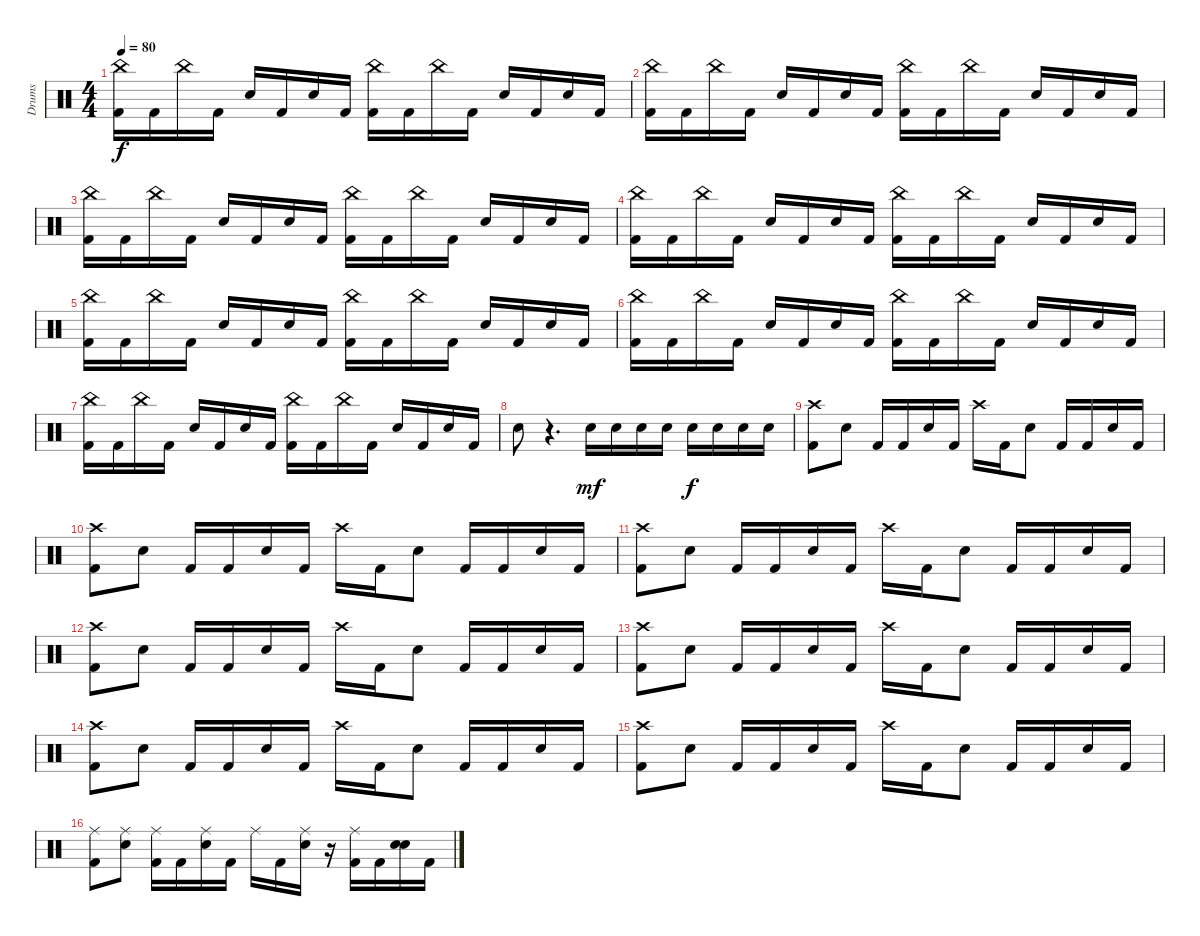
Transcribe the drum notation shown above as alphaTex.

\track ("Drums" "Drums") {instrument percussion}
\staff {score}
\articulation defaults
\ts (4 4)
\tempo 80
\clef neutral
\ks c
("China (hit)" "Kick (hit) 2").16{dy f} "Kick (hit) 2".16 "China (hit)".16 "Kick (hit) 2".16 "Electric Snare (hit)".16 "Kick (hit) 2".16 "Electric Snare (hit)".16 "Kick (hit) 2".16 ("China (hit)" "Kick (hit) 2").16 "Kick (hit) 2".16 "China (hit)".16 "Kick (hit) 2".16 "Electric Snare (hit)".16 "Kick (hit) 2".16 "Electric Snare (hit)".16 "Kick (hit) 2".16 |
("China (hit)" "Kick (hit) 2").16 "Kick (hit) 2".16 "China (hit)".16 "Kick (hit) 2".16 "Electric Snare (hit)".16 "Kick (hit) 2".16 "Electric Snare (hit)".16 "Kick (hit) 2".16 ("China (hit)" "Kick (hit) 2").16 "Kick (hit) 2".16 "China (hit)".16 "Kick (hit) 2".16 "Electric Snare (hit)".16 "Kick (hit) 2".16 "Electric Snare (hit)".16 "Kick (hit) 2".16 |
("China (hit)" "Kick (hit) 2").16 "Kick (hit) 2".16 "China (hit)".16 "Kick (hit) 2".16 "Electric Snare (hit)".16 "Kick (hit) 2".16 "Electric Snare (hit)".16 "Kick (hit) 2".16 ("China (hit)" "Kick (hit) 2").16 "Kick (hit) 2".16 "China (hit)".16 "Kick (hit) 2".16 "Electric Snare (hit)".16 "Kick (hit) 2".16 "Electric Snare (hit)".16 "Kick (hit) 2".16 |
("China (hit)" "Kick (hit) 2").16 "Kick (hit) 2".16 "China (hit)".16 "Kick (hit) 2".16 "Electric Snare (hit)".16 "Kick (hit) 2".16 "Electric Snare (hit)".16 "Kick (hit) 2".16 ("China (hit)" "Kick (hit) 2").16 "Kick (hit) 2".16 "China (hit)".16 "Kick (hit) 2".16 "Electric Snare (hit)".16 "Kick (hit) 2".16 "Electric Snare (hit)".16 "Kick (hit) 2".16 |
("China (hit)" "Kick (hit) 2").16 "Kick (hit) 2".16 "China (hit)".16 "Kick (hit) 2".16 "Electric Snare (hit)".16 "Kick (hit) 2".16 "Electric Snare (hit)".16 "Kick (hit) 2".16 ("China (hit)" "Kick (hit) 2").16 "Kick (hit) 2".16 "China (hit)".16 "Kick (hit) 2".16 "Electric Snare (hit)".16 "Kick (hit) 2".16 "Electric Snare (hit)".16 "Kick (hit) 2".16 |
("China (hit)" "Kick (hit) 2").16 "Kick (hit) 2".16 "China (hit)".16 "Kick (hit) 2".16 "Electric Snare (hit)".16 "Kick (hit) 2".16 "Electric Snare (hit)".16 "Kick (hit) 2".16 ("China (hit)" "Kick (hit) 2").16 "Kick (hit) 2".16 "China (hit)".16 "Kick (hit) 2".16 "Electric Snare (hit)".16 "Kick (hit) 2".16 "Electric Snare (hit)".16 "Kick (hit) 2".16 |
("China (hit)" "Kick (hit) 2").16 "Kick (hit) 2".16 "China (hit)".16 "Kick (hit) 2".16 "Electric Snare (hit)".16 "Kick (hit) 2".16 "Electric Snare (hit)".16 "Kick (hit) 2".16 ("China (hit)" "Kick (hit) 2").16 "Kick (hit) 2".16 "China (hit)".16 "Kick (hit) 2".16 "Electric Snare (hit)".16 "Kick (hit) 2".16 "Electric Snare (hit)".16 "Kick (hit) 2".16 |
"Electric Snare (hit)".8 r.4{d} "Electric Snare (hit)".16{dy mf} "Electric Snare (hit)".16 "Electric Snare (hit)".16 "Electric Snare (hit)".16 "Electric Snare (hit)".16{dy f} "Electric Snare (hit)".16 "Electric Snare (hit)".16 "Electric Snare (hit)".16 |
("Crash high (hit)" "Kick (hit) 2").8 "Electric Snare (hit)".8 "Kick (hit) 2".16 "Kick (hit) 2".16 "Electric Snare (hit)".16 "Kick (hit) 2".16 "Crash high (hit)".16 "Kick (hit) 2".16 "Electric Snare (hit)".8 "Kick (hit) 2".16 "Kick (hit) 2".16 "Electric Snare (hit)".16 "Kick (hit) 2".16 |
("Crash high (hit)" "Kick (hit) 2").8 "Electric Snare (hit)".8 "Kick (hit) 2".16 "Kick (hit) 2".16 "Electric Snare (hit)".16 "Kick (hit) 2".16 "Crash high (hit)".16 "Kick (hit) 2".16 "Electric Snare (hit)".8 "Kick (hit) 2".16 "Kick (hit) 2".16 "Electric Snare (hit)".16 "Kick (hit) 2".16 |
("Crash high (hit)" "Kick (hit) 2").8 "Electric Snare (hit)".8 "Kick (hit) 2".16 "Kick (hit) 2".16 "Electric Snare (hit)".16 "Kick (hit) 2".16 "Crash high (hit)".16 "Kick (hit) 2".16 "Electric Snare (hit)".8 "Kick (hit) 2".16 "Kick (hit) 2".16 "Electric Snare (hit)".16 "Kick (hit) 2".16 |
("Crash high (hit)" "Kick (hit) 2").8 "Electric Snare (hit)".8 "Kick (hit) 2".16 "Kick (hit) 2".16 "Electric Snare (hit)".16 "Kick (hit) 2".16 "Crash high (hit)".16 "Kick (hit) 2".16 "Electric Snare (hit)".8 "Kick (hit) 2".16 "Kick (hit) 2".16 "Electric Snare (hit)".16 "Kick (hit) 2".16 |
("Crash high (hit)" "Kick (hit) 2").8 "Electric Snare (hit)".8 "Kick (hit) 2".16 "Kick (hit) 2".16 "Electric Snare (hit)".16 "Kick (hit) 2".16 "Crash high (hit)".16 "Kick (hit) 2".16 "Electric Snare (hit)".8 "Kick (hit) 2".16 "Kick (hit) 2".16 "Electric Snare (hit)".16 "Kick (hit) 2".16 |
("Crash high (hit)" "Kick (hit) 2").8 "Electric Snare (hit)".8 "Kick (hit) 2".16 "Kick (hit) 2".16 "Electric Snare (hit)".16 "Kick (hit) 2".16 "Crash high (hit)".16 "Kick (hit) 2".16 "Electric Snare (hit)".8 "Kick (hit) 2".16 "Kick (hit) 2".16 "Electric Snare (hit)".16 "Kick (hit) 2".16 |
("Crash high (hit)" "Kick (hit) 2").8 "Electric Snare (hit)".8 "Kick (hit) 2".16 "Kick (hit) 2".16 "Electric Snare (hit)".16 "Kick (hit) 2".16 "Crash high (hit)".16 "Kick (hit) 2".16 "Electric Snare (hit)".8 "Kick (hit) 2".16 "Kick (hit) 2".16 "Electric Snare (hit)".16 "Kick (hit) 2".16 |
("Ride (middle)" "Kick (hit) 2").8 ("Ride (middle)" "Electric Snare (hit)").8 ("Ride (middle)" "Kick (hit) 2").16 "Kick (hit) 2".16 ("Ride (middle)" "Electric Snare (hit)").16 "Kick (hit) 2".16 "Ride (middle)".16 "Kick (hit) 2".16 ("Ride (middle)" "Electric Snare (hit)").16 r.16 ("Ride (middle)" "Kick (hit) 2").16 "Kick (hit) 2".16 ("Snare (hit)" "Electric Snare (hit)").16 "Kick (hit) 2".16
